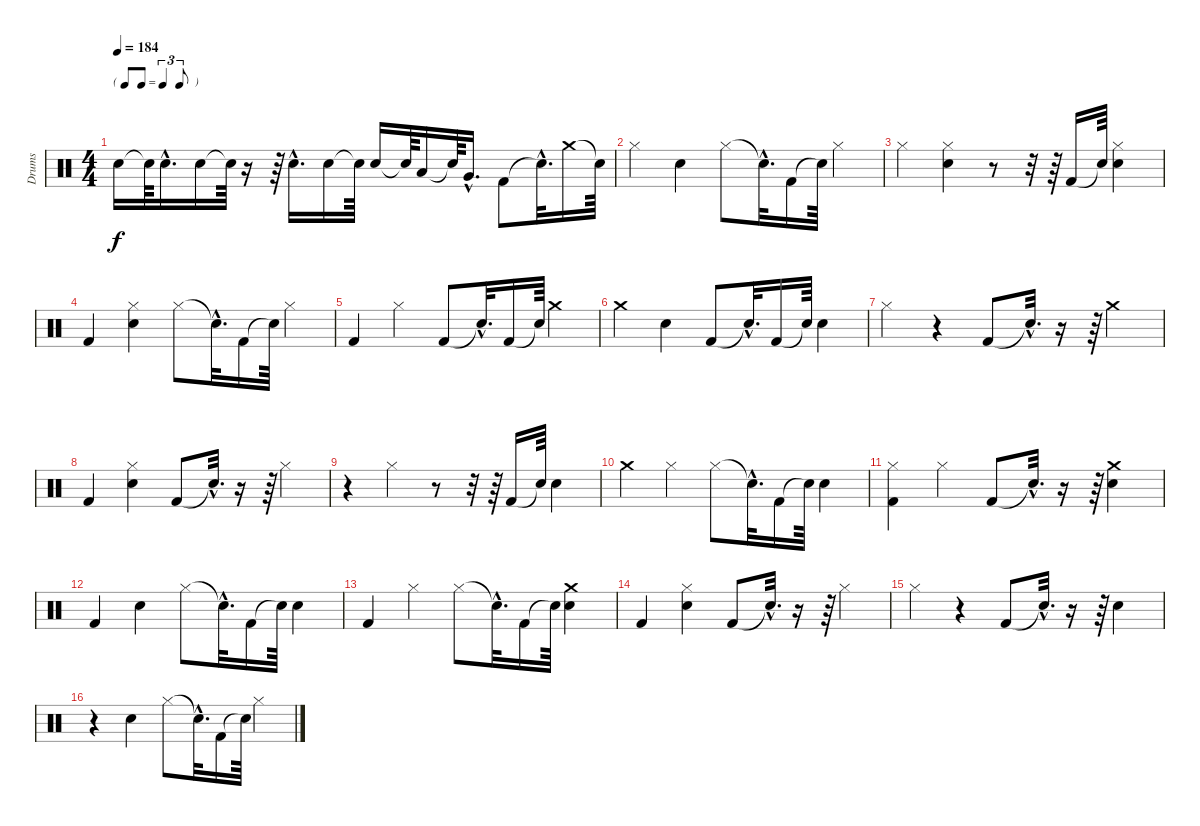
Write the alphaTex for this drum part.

\track ("Drums" "Drums") {instrument percussion}
\staff {score}
\articulation defaults
\ts (4 4)
\tf triplet8th
\tempo 184
\clef neutral
\ks c "Snare (hit) 2".16{dy f} "Snare (hit)"{t}.64 "Snare (hit) 2"{hac}.16{d} "Snare (hit) 2".16 "Snare (hit)"{t}.64
r.16 r.64 "Snare (hit) 2"{hac}.16{d} "Snare (hit) 2".16 "Snare (hit)"{t}.64 "Snare (hit) 2".16 "Snare (hit)"{t}.64 "Low Tom (hit)".16 "Snare (hit)"{t}.64 "Very Low Tom (hit)"{hac}.16{d} "Kick (hit) 2".8 "Snare (hit)"{hac t}.32{d} "Crash medium (hit)".16 "Snare (hit)"{t}.64 |
"Hi-Hat (closed)".4 "Snare (hit) 2".4 "Hi-Hat (closed)".8 "Snare (hit)"{hac t}.32{d} "Kick (hit) 2".16 "Snare (hit)"{t}.64 "Hi-Hat (closed)".4 |
"Hi-Hat (closed)".4 ("Hi-Hat (closed)" "Snare (hit) 2").4 r.8 r.32 r.64 "Kick (hit) 2".16 "Snare (hit)"{t}.64 ("Hi-Hat (closed)" "Snare (hit) 2").4 |
"Kick (hit) 2".4 ("Hi-Hat (closed)" "Snare (hit) 2").4 "Hi-Hat (closed)".8 "Snare (hit)"{hac t}.32{d} "Kick (hit) 2".16 "Snare (hit)"{t}.64 "Hi-Hat (closed)".4 |
"Kick (hit) 2".4 "Hi-Hat (closed)".4 "Kick (hit) 2".8 "Snare (hit)"{hac t}.32{d} "Kick (hit) 2".16 "Snare (hit)"{t}.64 "Crash medium (hit)".4 |
"Crash medium (hit)".4 "Snare (hit) 2".4 "Kick (hit) 2".8 "Snare (hit)"{hac t}.32{d} "Kick (hit) 2".16 "Snare (hit)"{t}.64 "Snare (hit) 2".4 |
"Hi-Hat (closed)".4 r.4 "Kick (hit) 2".8 "Snare (hit)"{hac t}.32{d} r.16 r.64 "Crash medium (hit)".4 |
"Kick (hit) 2".4 ("Hi-Hat (closed)" "Snare (hit) 2").4 "Kick (hit) 2".8 "Snare (hit)"{hac t}.32{d} r.16 r.64 "Hi-Hat (closed)".4 |
r.4 "Hi-Hat (closed)".4 r.8 r.32 r.64 "Kick (hit) 2".16 "Snare (hit)"{t}.64 "Snare (hit) 2".4 |
"Crash medium (hit)".4 "Hi-Hat (closed)".4 "Hi-Hat (closed)".8 "Snare (hit)"{hac t}.32{d} "Kick (hit) 2".16 "Snare (hit)"{t}.64 "Snare (hit) 2".4 |
("Hi-Hat (closed)" "Kick (hit) 2").4 "Hi-Hat (closed)".4 "Kick (hit) 2".8 "Snare (hit)"{hac t}.32{d} r.16 r.64 ("Crash medium (hit)" "Snare (hit) 2").4 |
"Kick (hit) 2".4 "Snare (hit) 2".4 "Hi-Hat (closed)".8 "Snare (hit)"{hac t}.32{d} "Kick (hit) 2".16 "Snare (hit)"{t}.64 "Snare (hit) 2".4 |
"Kick (hit) 2".4 "Hi-Hat (closed)".4 "Hi-Hat (closed)".8 "Snare (hit)"{hac t}.32{d} "Kick (hit) 2".16 "Snare (hit)"{t}.64 ("Crash medium (hit)" "Snare (hit) 2").4 |
"Kick (hit) 2".4 ("Hi-Hat (closed)" "Snare (hit) 2").4 "Kick (hit) 2".8 "Snare (hit)"{hac t}.32{d} r.16 r.64 "Hi-Hat (closed)".4 |
"Hi-Hat (closed)".4 r.4 "Kick (hit) 2".8 "Snare (hit)"{hac t}.32{d} r.16 r.64 "Snare (hit) 2".4 |
r.4 "Snare (hit) 2".4 "Hi-Hat (closed)".8 "Snare (hit)"{hac t}.32{d} "Kick (hit) 2".16 "Snare (hit)"{t}.64 "Hi-Hat (closed)".4
